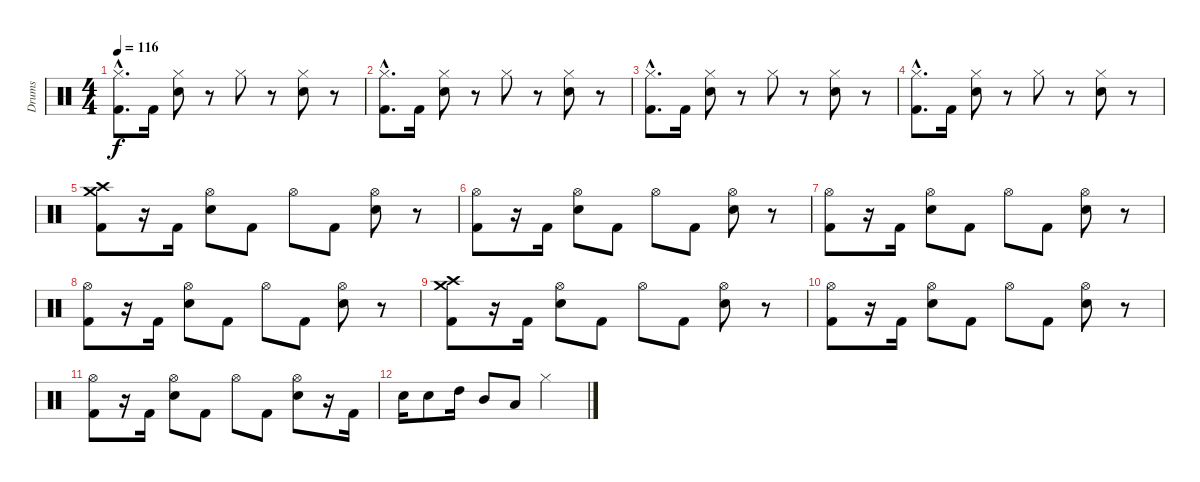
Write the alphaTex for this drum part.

\track ("Drums" "Drums") {instrument percussion}
\staff {score}
\articulation defaults
\ts (4 4)
\tempo 116
\clef neutral
\ks c
("Hi-Hat (closed)"{hac} "Kick (hit) 2"{hac}).8{d dy f} "Kick (hit) 2".16 ("Hi-Hat (closed)" "Snare (hit) 2").8 r.8 "Hi-Hat (closed)".8 r.8 ("Hi-Hat (closed)" "Snare (hit) 2").8 r.8 |
("Hi-Hat (closed)"{hac} "Kick (hit) 2"{hac}).8{d} "Kick (hit) 2".16 ("Hi-Hat (closed)" "Snare (hit) 2").8 r.8 "Hi-Hat (closed)".8 r.8 ("Hi-Hat (closed)" "Snare (hit) 2").8 r.8 |
("Hi-Hat (closed)"{hac} "Kick (hit) 2"{hac}).8{d} "Kick (hit) 2".16 ("Hi-Hat (closed)" "Snare (hit) 2").8 r.8 "Hi-Hat (closed)".8 r.8 ("Hi-Hat (closed)" "Snare (hit) 2").8 r.8 |
("Hi-Hat (closed)"{hac} "Kick (hit) 2"{hac}).8{d} "Kick (hit) 2".16 ("Hi-Hat (closed)" "Snare (hit) 2").8 r.8 "Hi-Hat (closed)".8 r.8 ("Hi-Hat (closed)" "Snare (hit) 2").8 r.8 |
("Crash medium (hit)" "Crash high (hit)" "Kick (hit) 2").8 r.16 "Kick (hit) 2".16 ("Hi-Hat (open)" "Electric Snare (hit)").8 "Kick (hit) 2".8 "Hi-Hat (open)".8 "Kick (hit) 2".8 ("Hi-Hat (open)" "Electric Snare (hit)").8 r.8 |
("Hi-Hat (open)" "Kick (hit) 2").8 r.16 "Kick (hit) 2".16 ("Hi-Hat (open)" "Electric Snare (hit)").8 "Kick (hit) 2".8 "Hi-Hat (open)".8 "Kick (hit) 2".8 ("Hi-Hat (open)" "Electric Snare (hit)").8 r.8 |
("Hi-Hat (open)" "Kick (hit) 2").8 r.16 "Kick (hit) 2".16 ("Hi-Hat (open)" "Electric Snare (hit)").8 "Kick (hit) 2".8 "Hi-Hat (open)".8 "Kick (hit) 2".8 ("Hi-Hat (open)" "Electric Snare (hit)").8 r.8 |
("Hi-Hat (open)" "Kick (hit) 2").8 r.16 "Kick (hit) 2".16 ("Hi-Hat (open)" "Electric Snare (hit)").8 "Kick (hit) 2".8 "Hi-Hat (open)".8 "Kick (hit) 2".8 ("Hi-Hat (open)" "Electric Snare (hit)").8 r.8 |
("Crash medium (hit)" "Crash high (hit)" "Kick (hit) 2").8 r.16 "Kick (hit) 2".16 ("Hi-Hat (open)" "Electric Snare (hit)").8 "Kick (hit) 2".8 "Hi-Hat (open)".8 "Kick (hit) 2".8 ("Hi-Hat (open)" "Electric Snare (hit)").8 r.8 |
("Hi-Hat (open)" "Kick (hit) 2").8 r.16 "Kick (hit) 2".16 ("Hi-Hat (open)" "Electric Snare (hit)").8 "Kick (hit) 2".8 "Hi-Hat (open)".8 "Kick (hit) 2".8 ("Hi-Hat (open)" "Electric Snare (hit)").8 r.8 |
("Hi-Hat (open)" "Kick (hit) 2").8 r.16 "Kick (hit) 2".16 ("Hi-Hat (open)" "Electric Snare (hit)").8 "Kick (hit) 2".8 "Hi-Hat (open)".8 "Kick (hit) 2".8 ("Hi-Hat (open)" "Electric Snare (hit)").8 r.16 "Kick (hit) 2".16 |
"Electric Snare (hit)".16 "Electric Snare (hit)".8 "High Tom (hit)".16 "Mid Tom (hit)".8 "Low Tom (hit)".8 "Hi-Hat (closed)".2
